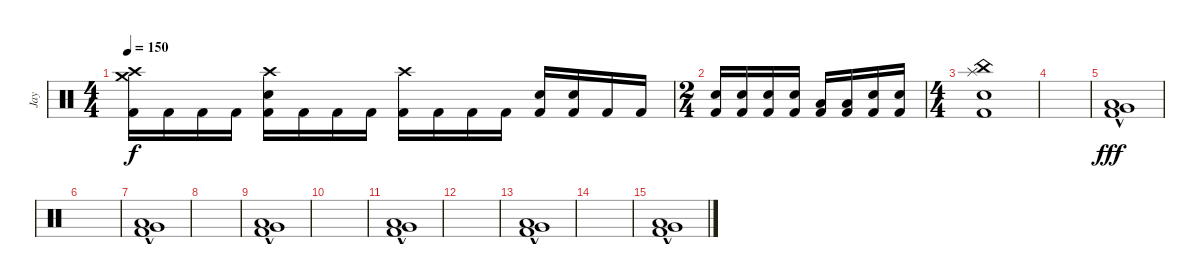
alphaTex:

\track ("Jay" "Jay") {instrument percussion}
\staff {score}
\articulation defaults
\ts (4 4)
\tempo 150
\clef neutral
\ks c
("Crash high (hit)" "Crash medium (hit)" "Kick (hit) 2").16{dy f} "Kick (hit) 2".16 "Kick (hit) 2".16 "Kick (hit) 2".16 ("Crash high (hit)" "Electric Snare (hit)" "Kick (hit) 2").16 "Kick (hit) 2".16 "Kick (hit) 2".16 "Kick (hit) 2".16 ("Crash high (hit)" "Kick (hit) 2").16 "Kick (hit) 2".16 "Kick (hit) 2".16 "Kick (hit) 2".16 ("Electric Snare (hit)" "Kick (hit) 2").16 ("Electric Snare (hit)" "Kick (hit) 2").16 "Kick (hit) 2".16 "Kick (hit) 2".16 |
\ts (2 4)
("Electric Snare (hit)" "Kick (hit) 2").16 ("Electric Snare (hit)" "Kick (hit) 2").16 ("Electric Snare (hit)" "Kick (hit) 2").16 ("Electric Snare (hit)" "Kick (hit) 2").16 ("Low Tom (hit)" "Kick (hit) 2").16 ("Low Tom (hit)" "Kick (hit) 2").16 ("Electric Snare (hit)" "Kick (hit) 2").16 ("Electric Snare (hit)" "Kick (hit) 2").16 |
\ts (4 4)
("China (hit)" "Splash (hit)" "Electric Snare (hit)" "Kick (hit) 2").1 |
|
("Very Low Tom (hit)"{hac} "Low Floor Tom (hit)"{hac} "Kick (hit) 2"{hac}).1{dy fff} |
|
("Very Low Tom (hit)"{hac} "Low Floor Tom (hit)"{hac} "Kick (hit) 2"{hac}).1 |
|
("Very Low Tom (hit)"{hac} "Low Floor Tom (hit)"{hac} "Kick (hit) 2"{hac}).1 |
|
("Very Low Tom (hit)"{hac} "Low Floor Tom (hit)"{hac} "Kick (hit) 2"{hac}).1 |
|
("Very Low Tom (hit)"{hac} "Low Floor Tom (hit)"{hac} "Kick (hit) 2"{hac}).1 |
|
("Very Low Tom (hit)"{hac} "Low Floor Tom (hit)"{hac} "Kick (hit) 2"{hac}).1
